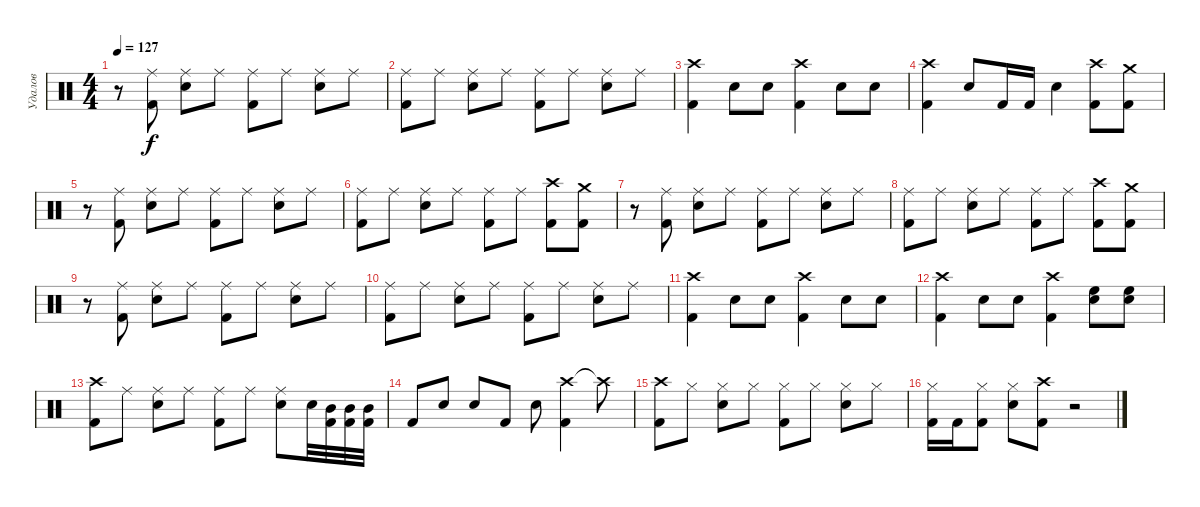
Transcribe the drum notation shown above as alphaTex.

\track ("Удалов" "Удалов") {instrument percussion}
\staff {score}
\articulation defaults
\ts (4 4)
\tempo 127
\clef neutral
\ks c
r.8{dy f} ("Ride (middle)" "Kick (hit) 2").8 ("Ride (middle)" "Snare (hit) 2").8 "Ride (middle)".8 ("Ride (middle)" "Kick (hit) 2").8 "Ride (middle)".8 ("Ride (middle)" "Snare (hit) 2").8 "Ride (middle)".8 |
("Ride (middle)" "Kick (hit) 2").8 "Ride (middle)".8 ("Ride (middle)" "Snare (hit) 2").8 "Ride (middle)".8 ("Ride (middle)" "Kick (hit) 2").8 "Ride (middle)".8 ("Ride (middle)" "Snare (hit) 2").8 "Ride (middle)".8 |
("Crash high (hit)" "Kick (hit) 2").4 "Snare (hit) 2".8 "Snare (hit) 2".8 ("Crash high (hit)" "Kick (hit) 2").4 "Snare (hit) 2".8 "Snare (hit) 2".8 |
("Crash high (hit)" "Kick (hit) 2").4 "Snare (hit) 2".8 "Kick (hit) 2".16 "Kick (hit) 2".16 "Snare (hit) 2".4 ("Crash high (hit)" "Kick (hit) 2").8 ("Crash medium (hit)" "Kick (hit) 2").8 |
r.8 ("Ride (middle)" "Kick (hit) 2").8 ("Ride (middle)" "Snare (hit) 2").8 "Ride (middle)".8 ("Ride (middle)" "Kick (hit) 2").8 "Ride (middle)".8 ("Ride (middle)" "Snare (hit) 2").8 "Ride (middle)".8 |
("Ride (middle)" "Kick (hit) 2").8 "Ride (middle)".8 ("Ride (middle)" "Snare (hit) 2").8 "Ride (middle)".8 ("Ride (middle)" "Kick (hit) 2").8 "Ride (middle)".8 ("Crash high (hit)" "Kick (hit) 2").8 ("Crash medium (hit)" "Kick (hit) 2").8 |
r.8 ("Ride (middle)" "Kick (hit) 2").8 ("Ride (middle)" "Snare (hit) 2").8 "Ride (middle)".8 ("Ride (middle)" "Kick (hit) 2").8 "Ride (middle)".8 ("Ride (middle)" "Snare (hit) 2").8 "Ride (middle)".8 |
("Ride (middle)" "Kick (hit) 2").8 "Ride (middle)".8 ("Ride (middle)" "Snare (hit) 2").8 "Ride (middle)".8 ("Ride (middle)" "Kick (hit) 2").8 "Ride (middle)".8 ("Crash high (hit)" "Kick (hit) 2").8 ("Crash medium (hit)" "Kick (hit) 2").8 |
r.8 ("Ride (middle)" "Kick (hit) 2").8 ("Ride (middle)" "Snare (hit) 2").8 "Ride (middle)".8 ("Ride (middle)" "Kick (hit) 2").8 "Ride (middle)".8 ("Ride (middle)" "Snare (hit) 2").8 "Ride (middle)".8 |
("Ride (middle)" "Kick (hit) 2").8 "Ride (middle)".8 ("Ride (middle)" "Snare (hit) 2").8 "Ride (middle)".8 ("Ride (middle)" "Kick (hit) 2").8 "Ride (middle)".8 ("Ride (middle)" "Snare (hit) 2").8 "Ride (middle)".8 |
("Crash high (hit)" "Kick (hit) 2").4 "Snare (hit) 2".8 "Snare (hit) 2".8 ("Crash high (hit)" "Kick (hit) 2").4 "Snare (hit) 2".8 "Snare (hit) 2".8 |
("Crash high (hit)" "Kick (hit) 2").4 "Snare (hit) 2".8 "Snare (hit) 2".8 ("Crash high (hit)" "Kick (hit) 2").4 ("Snare (hit) 2" "High Floor Tom (hit)").8 ("Snare (hit) 2" "High Floor Tom (hit)").8 |
("Crash high (hit)" "Kick (hit) 2").8 "Ride (middle)".8 ("Ride (middle)" "Snare (hit) 2").8 "Ride (middle)".8 ("Ride (middle)" "Kick (hit) 2").8 "Ride (middle)".8 ("Ride (middle)" "Snare (hit) 2").8 "Snare (hit) 2".32 ("Mid Tom (hit)" "Kick (hit) 2").32 ("Mid Tom (hit)" "Kick (hit) 2").32 ("Mid Tom (hit)" "Kick (hit) 2").32 |
"Kick (hit) 2".8 "Snare (hit) 2".8 "Snare (hit) 2".8 "Kick (hit) 2".8 "Snare (hit) 2".8 ("Crash high (hit)" "Kick (hit) 2").4 "Crash high (hit)"{t}.8 |
("Crash high (hit)" "Kick (hit) 2").8 "Hi-Hat (closed)".8 ("Hi-Hat (closed)" "Snare (hit) 2").8 "Hi-Hat (closed)".8 ("Hi-Hat (closed)" "Kick (hit) 2").8 "Hi-Hat (closed)".8 ("Hi-Hat (closed)" "Snare (hit) 2").8 "Hi-Hat (closed)".8 |
("Hi-Hat (closed)" "Kick (hit) 2").16 "Kick (hit) 2".16 ("Hi-Hat (closed)" "Kick (hit) 2").8 ("Hi-Hat (closed)" "Snare (hit) 2").8 ("Crash high (hit)" "Kick (hit) 2").8 r.2
